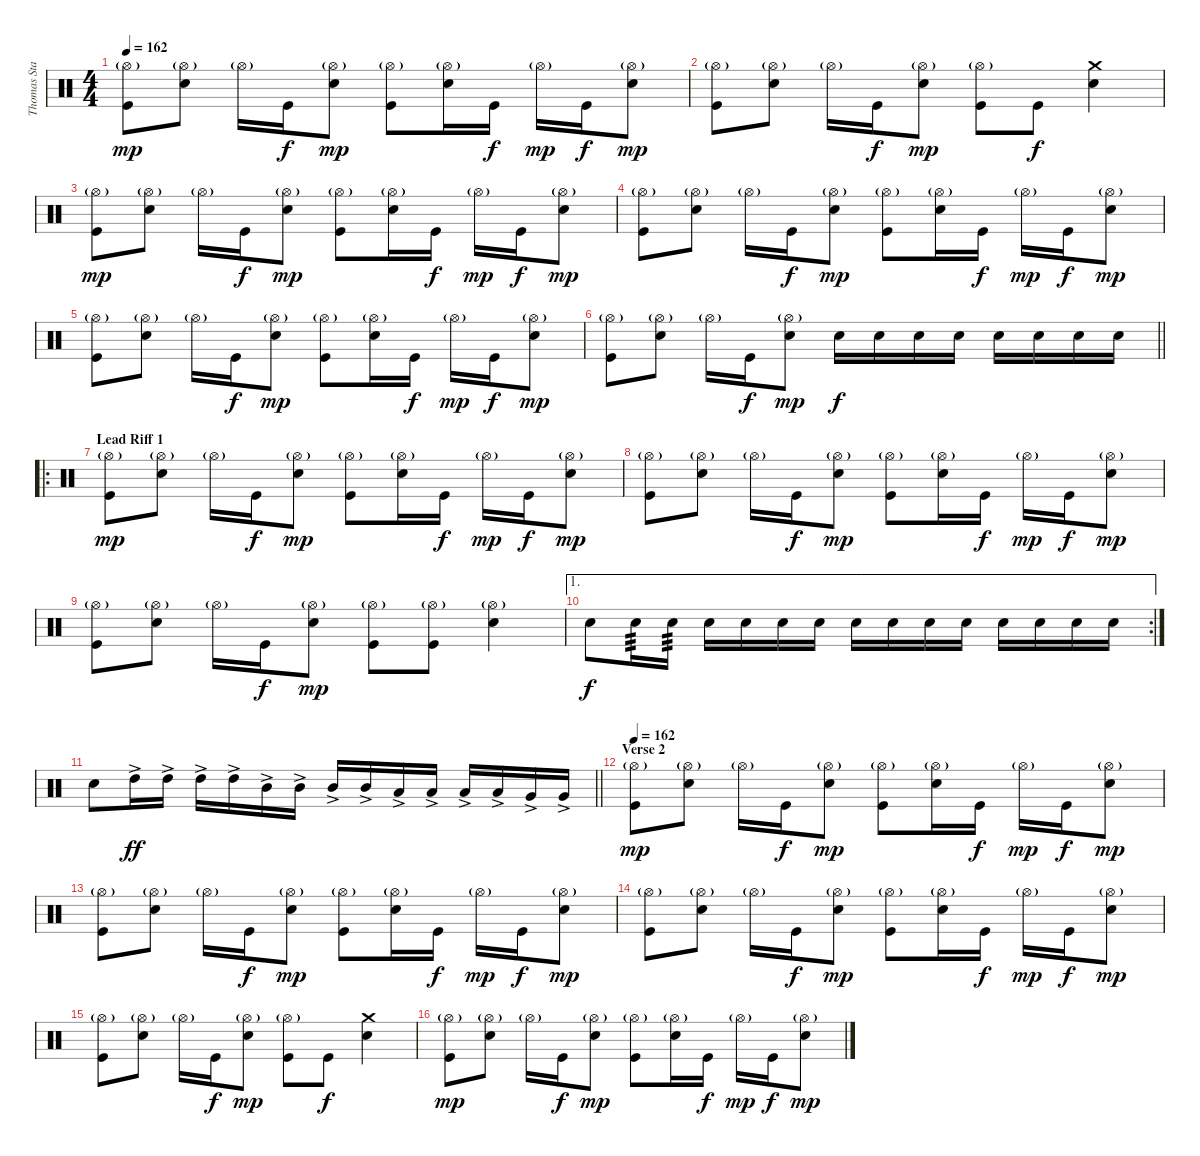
\track ("Thomas Stauch" "Thomas Sta") {instrument percussion}
\staff {score}
\articulation defaults
\ts (4 4)
\tempo 162
\clef neutral
\ks c
("Hi-Hat (open)"{g} "Kick (hit)").8{dy mp} ("Hi-Hat (open)"{g} "Electric Snare (hit)").8 "Hi-Hat (open)"{g}.16 "Kick (hit)".16{dy f} ("Hi-Hat (open)"{g} "Electric Snare (hit)").8{dy mp} ("Hi-Hat (open)"{g} "Kick (hit)").8 ("Hi-Hat (open)"{g} "Electric Snare (hit)").16 "Kick (hit)".16{dy f} "Hi-Hat (open)"{g}.16{dy mp} "Kick (hit)".16{dy f} ("Hi-Hat (open)"{g} "Electric Snare (hit)").8{dy mp} |
("Hi-Hat (open)"{g} "Kick (hit)").8 ("Hi-Hat (open)"{g} "Electric Snare (hit)").8 "Hi-Hat (open)"{g}.16 "Kick (hit)".16{dy f} ("Hi-Hat (open)"{g} "Electric Snare (hit)").8{dy mp} ("Hi-Hat (open)"{g} "Kick (hit)").8 "Kick (hit)".8{dy f} ("Crash medium (hit)" "Electric Snare (hit)").4 |
("Hi-Hat (open)"{g} "Kick (hit)").8{dy mp} ("Hi-Hat (open)"{g} "Electric Snare (hit)").8 "Hi-Hat (open)"{g}.16 "Kick (hit)".16{dy f} ("Hi-Hat (open)"{g} "Electric Snare (hit)").8{dy mp} ("Hi-Hat (open)"{g} "Kick (hit)").8 ("Hi-Hat (open)"{g} "Electric Snare (hit)").16 "Kick (hit)".16{dy f} "Hi-Hat (open)"{g}.16{dy mp} "Kick (hit)".16{dy f} ("Hi-Hat (open)"{g} "Electric Snare (hit)").8{dy mp} |
("Hi-Hat (open)"{g} "Kick (hit)").8 ("Hi-Hat (open)"{g} "Electric Snare (hit)").8 "Hi-Hat (open)"{g}.16 "Kick (hit)".16{dy f} ("Hi-Hat (open)"{g} "Electric Snare (hit)").8{dy mp} ("Hi-Hat (open)"{g} "Kick (hit)").8 ("Hi-Hat (open)"{g} "Electric Snare (hit)").16 "Kick (hit)".16{dy f} "Hi-Hat (open)"{g}.16{dy mp} "Kick (hit)".16{dy f} ("Hi-Hat (open)"{g} "Electric Snare (hit)").8{dy mp} |
("Hi-Hat (open)"{g} "Kick (hit)").8 ("Hi-Hat (open)"{g} "Electric Snare (hit)").8 "Hi-Hat (open)"{g}.16 "Kick (hit)".16{dy f} ("Hi-Hat (open)"{g} "Electric Snare (hit)").8{dy mp} ("Hi-Hat (open)"{g} "Kick (hit)").8 ("Hi-Hat (open)"{g} "Electric Snare (hit)").16 "Kick (hit)".16{dy f} "Hi-Hat (open)"{g}.16{dy mp} "Kick (hit)".16{dy f} ("Hi-Hat (open)"{g} "Electric Snare (hit)").8{dy mp} |
\barLineRight lightlight
("Hi-Hat (open)"{g} "Kick (hit)").8 ("Hi-Hat (open)"{g} "Electric Snare (hit)").8 "Hi-Hat (open)"{g}.16 "Kick (hit)".16{dy f} ("Hi-Hat (open)"{g} "Electric Snare (hit)").8{dy mp} "Electric Snare (hit)".16{dy f} "Electric Snare (hit)".16 "Electric Snare (hit)".16 "Electric Snare (hit)".16 "Electric Snare (hit)".16 "Electric Snare (hit)".16 "Electric Snare (hit)".16 "Electric Snare (hit)".16 |
\ro
\section ("" "Lead Riff 1")
("Hi-Hat (open)"{g} "Kick (hit)").8{dy mp} ("Hi-Hat (open)"{g} "Electric Snare (hit)").8 "Hi-Hat (open)"{g}.16 "Kick (hit)".16{dy f} ("Hi-Hat (open)"{g} "Electric Snare (hit)").8{dy mp} ("Hi-Hat (open)"{g} "Kick (hit)").8 ("Hi-Hat (open)"{g} "Electric Snare (hit)").16 "Kick (hit)".16{dy f} "Hi-Hat (open)"{g}.16{dy mp} "Kick (hit)".16{dy f} ("Hi-Hat (open)"{g} "Electric Snare (hit)").8{dy mp} |
("Hi-Hat (open)"{g} "Kick (hit)").8 ("Hi-Hat (open)"{g} "Electric Snare (hit)").8 "Hi-Hat (open)"{g}.16 "Kick (hit)".16{dy f} ("Hi-Hat (open)"{g} "Electric Snare (hit)").8{dy mp} ("Hi-Hat (open)"{g} "Kick (hit)").8 ("Hi-Hat (open)"{g} "Electric Snare (hit)").16 "Kick (hit)".16{dy f} "Hi-Hat (open)"{g}.16{dy mp} "Kick (hit)".16{dy f} ("Hi-Hat (open)"{g} "Electric Snare (hit)").8{dy mp} |
("Hi-Hat (open)"{g} "Kick (hit)").8 ("Hi-Hat (open)"{g} "Electric Snare (hit)").8 "Hi-Hat (open)"{g}.16 "Kick (hit)".16{dy f} ("Hi-Hat (open)"{g} "Electric Snare (hit)").8{dy mp} ("Hi-Hat (open)"{g} "Kick (hit)").8 ("Hi-Hat (open)"{g} "Kick (hit)").8 ("Hi-Hat (open)"{g} "Electric Snare (hit)").4 |
\ae 1
\rc 2 "Electric Snare (hit)".8{dy f} "Electric Snare (hit)".16{tp 3} "Electric Snare (hit)".16{tp 3} "Electric Snare (hit)".16 "Electric Snare (hit)".16 "Electric Snare (hit)".16 "Electric Snare (hit)".16 "Electric Snare (hit)".16 "Electric Snare (hit)".16 "Electric Snare (hit)".16 "Electric Snare (hit)".16 "Electric Snare (hit)".16 "Electric Snare (hit)".16 "Electric Snare (hit)".16 "Electric Snare (hit)".16
|
\barLineRight lightlight "Electric Snare (hit)".8 "High Tom (hit)"{ac}.16{dy ff} "High Tom (hit)"{ac}.16 "High Tom (hit)"{ac}.16 "High Tom (hit)"{ac}.16 "Mid Tom (hit)"{ac}.16 "Mid Tom (hit)"{ac}.16 "Mid Tom (hit)"{ac}.16 "Mid Tom (hit)"{ac}.16 "Low Tom (hit)"{ac}.16 "Low Tom (hit)"{ac}.16 "Low Tom (hit)"{ac}.16 "Low Tom (hit)"{ac}.16 "Very Low Tom (hit)"{ac}.16 "Very Low Tom (hit)"{ac}.16
|
\section ("" "Verse 2")
\tempo 162
("Hi-Hat (open)"{g} "Kick (hit)").8{dy mp} ("Hi-Hat (open)"{g} "Electric Snare (hit)").8 "Hi-Hat (open)"{g}.16 "Kick (hit)".16{dy f} ("Hi-Hat (open)"{g} "Electric Snare (hit)").8{dy mp} ("Hi-Hat (open)"{g} "Kick (hit)").8 ("Hi-Hat (open)"{g} "Electric Snare (hit)").16 "Kick (hit)".16{dy f} "Hi-Hat (open)"{g}.16{dy mp} "Kick (hit)".16{dy f} ("Hi-Hat (open)"{g} "Electric Snare (hit)").8{dy mp} |
("Hi-Hat (open)"{g} "Kick (hit)").8 ("Hi-Hat (open)"{g} "Electric Snare (hit)").8 "Hi-Hat (open)"{g}.16 "Kick (hit)".16{dy f} ("Hi-Hat (open)"{g} "Electric Snare (hit)").8{dy mp} ("Hi-Hat (open)"{g} "Kick (hit)").8 ("Hi-Hat (open)"{g} "Electric Snare (hit)").16 "Kick (hit)".16{dy f} "Hi-Hat (open)"{g}.16{dy mp} "Kick (hit)".16{dy f} ("Hi-Hat (open)"{g} "Electric Snare (hit)").8{dy mp} |
("Hi-Hat (open)"{g} "Kick (hit)").8 ("Hi-Hat (open)"{g} "Electric Snare (hit)").8 "Hi-Hat (open)"{g}.16 "Kick (hit)".16{dy f} ("Hi-Hat (open)"{g} "Electric Snare (hit)").8{dy mp} ("Hi-Hat (open)"{g} "Kick (hit)").8 ("Hi-Hat (open)"{g} "Electric Snare (hit)").16 "Kick (hit)".16{dy f} "Hi-Hat (open)"{g}.16{dy mp} "Kick (hit)".16{dy f} ("Hi-Hat (open)"{g} "Electric Snare (hit)").8{dy mp} |
("Hi-Hat (open)"{g} "Kick (hit)").8 ("Hi-Hat (open)"{g} "Electric Snare (hit)").8 "Hi-Hat (open)"{g}.16 "Kick (hit)".16{dy f} ("Hi-Hat (open)"{g} "Electric Snare (hit)").8{dy mp} ("Hi-Hat (open)"{g} "Kick (hit)").8 "Kick (hit)".8{dy f} ("Crash medium (hit)" "Electric Snare (hit)").4 |
("Hi-Hat (open)"{g} "Kick (hit)").8{dy mp} ("Hi-Hat (open)"{g} "Electric Snare (hit)").8 "Hi-Hat (open)"{g}.16 "Kick (hit)".16{dy f} ("Hi-Hat (open)"{g} "Electric Snare (hit)").8{dy mp} ("Hi-Hat (open)"{g} "Kick (hit)").8 ("Hi-Hat (open)"{g} "Electric Snare (hit)").16 "Kick (hit)".16{dy f} "Hi-Hat (open)"{g}.16{dy mp} "Kick (hit)".16{dy f} ("Hi-Hat (open)"{g} "Electric Snare (hit)").8{dy mp}
